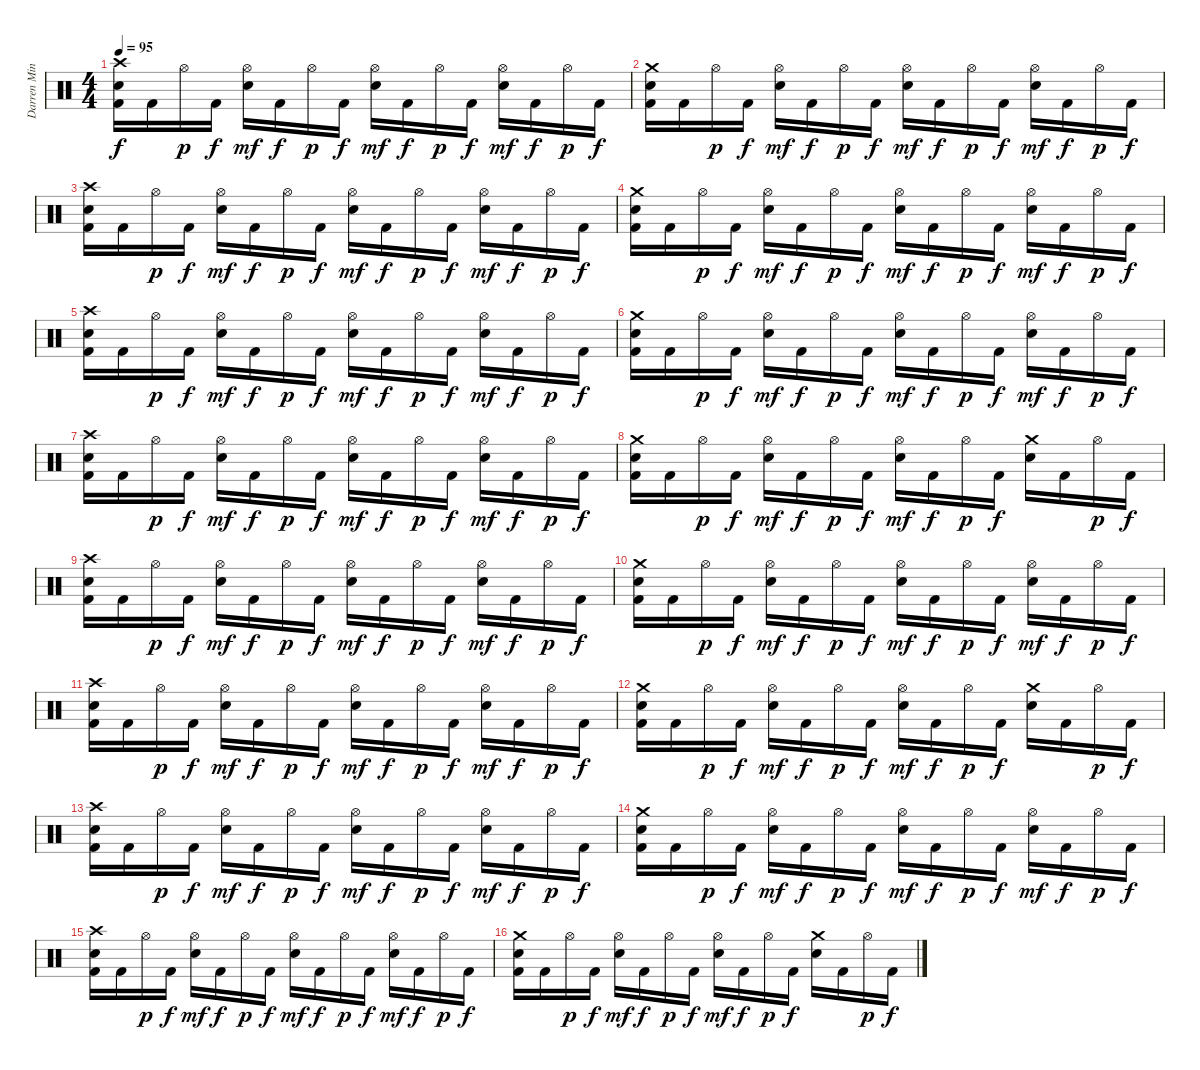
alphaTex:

\track ("Darren Minter" "Darren Min") {instrument percussion}
\staff {score}
\articulation defaults
\ts (4 4)
\tempo 95
\clef neutral
\ks c
("Kick (hit) 2" "Crash high (hit)" "Snare (hit) 2").16{dy f} "Kick (hit) 2".16 "Hi-Hat (open)".16{dy p} "Kick (hit) 2".16{dy f} ("Hi-Hat (open)" "Snare (hit) 2").16{dy mf} "Kick (hit) 2".16{dy f} "Hi-Hat (open)".16{dy p} "Kick (hit) 2".16{dy f} ("Hi-Hat (open)" "Snare (hit) 2").16{dy mf} "Kick (hit) 2".16{dy f} "Hi-Hat (open)".16{dy p} "Kick (hit) 2".16{dy f} ("Hi-Hat (open)" "Snare (hit) 2").16{dy mf} "Kick (hit) 2".16{dy f} "Hi-Hat (open)".16{dy p} "Kick (hit) 2".16{dy f} |
("Kick (hit) 2" "Crash medium (hit)" "Snare (hit) 2").16 "Kick (hit) 2".16 "Hi-Hat (open)".16{dy p} "Kick (hit) 2".16{dy f} ("Hi-Hat (open)" "Snare (hit) 2").16{dy mf} "Kick (hit) 2".16{dy f} "Hi-Hat (open)".16{dy p} "Kick (hit) 2".16{dy f} ("Hi-Hat (open)" "Snare (hit) 2").16{dy mf} "Kick (hit) 2".16{dy f} "Hi-Hat (open)".16{dy p} "Kick (hit) 2".16{dy f} ("Hi-Hat (open)" "Snare (hit) 2").16{dy mf} "Kick (hit) 2".16{dy f} "Hi-Hat (open)".16{dy p} "Kick (hit) 2".16{dy f} |
("Kick (hit) 2" "Crash high (hit)" "Snare (hit) 2").16 "Kick (hit) 2".16 "Hi-Hat (open)".16{dy p} "Kick (hit) 2".16{dy f} ("Hi-Hat (open)" "Snare (hit) 2").16{dy mf} "Kick (hit) 2".16{dy f} "Hi-Hat (open)".16{dy p} "Kick (hit) 2".16{dy f} ("Hi-Hat (open)" "Snare (hit) 2").16{dy mf} "Kick (hit) 2".16{dy f} "Hi-Hat (open)".16{dy p} "Kick (hit) 2".16{dy f} ("Hi-Hat (open)" "Snare (hit) 2").16{dy mf} "Kick (hit) 2".16{dy f} "Hi-Hat (open)".16{dy p} "Kick (hit) 2".16{dy f} |
("Kick (hit) 2" "Crash medium (hit)" "Snare (hit) 2").16 "Kick (hit) 2".16 "Hi-Hat (open)".16{dy p} "Kick (hit) 2".16{dy f} ("Hi-Hat (open)" "Snare (hit) 2").16{dy mf} "Kick (hit) 2".16{dy f} "Hi-Hat (open)".16{dy p} "Kick (hit) 2".16{dy f} ("Hi-Hat (open)" "Snare (hit) 2").16{dy mf} "Kick (hit) 2".16{dy f} "Hi-Hat (open)".16{dy p} "Kick (hit) 2".16{dy f} ("Hi-Hat (open)" "Snare (hit) 2").16{dy mf} "Kick (hit) 2".16{dy f} "Hi-Hat (open)".16{dy p} "Kick (hit) 2".16{dy f} |
("Kick (hit) 2" "Crash high (hit)" "Snare (hit) 2").16 "Kick (hit) 2".16 "Hi-Hat (open)".16{dy p} "Kick (hit) 2".16{dy f} ("Hi-Hat (open)" "Snare (hit) 2").16{dy mf} "Kick (hit) 2".16{dy f} "Hi-Hat (open)".16{dy p} "Kick (hit) 2".16{dy f} ("Hi-Hat (open)" "Snare (hit) 2").16{dy mf} "Kick (hit) 2".16{dy f} "Hi-Hat (open)".16{dy p} "Kick (hit) 2".16{dy f} ("Hi-Hat (open)" "Snare (hit) 2").16{dy mf} "Kick (hit) 2".16{dy f} "Hi-Hat (open)".16{dy p} "Kick (hit) 2".16{dy f} |
("Kick (hit) 2" "Crash medium (hit)" "Snare (hit) 2").16 "Kick (hit) 2".16 "Hi-Hat (open)".16{dy p} "Kick (hit) 2".16{dy f} ("Hi-Hat (open)" "Snare (hit) 2").16{dy mf} "Kick (hit) 2".16{dy f} "Hi-Hat (open)".16{dy p} "Kick (hit) 2".16{dy f} ("Hi-Hat (open)" "Snare (hit) 2").16{dy mf} "Kick (hit) 2".16{dy f} "Hi-Hat (open)".16{dy p} "Kick (hit) 2".16{dy f} ("Hi-Hat (open)" "Snare (hit) 2").16{dy mf} "Kick (hit) 2".16{dy f} "Hi-Hat (open)".16{dy p} "Kick (hit) 2".16{dy f} |
("Kick (hit) 2" "Crash high (hit)" "Snare (hit) 2").16 "Kick (hit) 2".16 "Hi-Hat (open)".16{dy p} "Kick (hit) 2".16{dy f} ("Hi-Hat (open)" "Snare (hit) 2").16{dy mf} "Kick (hit) 2".16{dy f} "Hi-Hat (open)".16{dy p} "Kick (hit) 2".16{dy f} ("Hi-Hat (open)" "Snare (hit) 2").16{dy mf} "Kick (hit) 2".16{dy f} "Hi-Hat (open)".16{dy p} "Kick (hit) 2".16{dy f} ("Hi-Hat (open)" "Snare (hit) 2").16{dy mf} "Kick (hit) 2".16{dy f} "Hi-Hat (open)".16{dy p} "Kick (hit) 2".16{dy f} |
("Kick (hit) 2" "Crash medium (hit)" "Snare (hit) 2").16 "Kick (hit) 2".16 "Hi-Hat (open)".16{dy p} "Kick (hit) 2".16{dy f} ("Hi-Hat (open)" "Snare (hit) 2").16{dy mf} "Kick (hit) 2".16{dy f} "Hi-Hat (open)".16{dy p} "Kick (hit) 2".16{dy f} ("Hi-Hat (open)" "Snare (hit) 2").16{dy mf} "Kick (hit) 2".16{dy f} "Hi-Hat (open)".16{dy p} "Kick (hit) 2".16{dy f} ("Crash medium (hit)" "Snare (hit) 2").16 "Kick (hit) 2".16 "Hi-Hat (open)".16{dy p} "Kick (hit) 2".16{dy f} |
("Kick (hit) 2" "Crash high (hit)" "Snare (hit) 2").16 "Kick (hit) 2".16 "Hi-Hat (open)".16{dy p} "Kick (hit) 2".16{dy f} ("Hi-Hat (open)" "Snare (hit) 2").16{dy mf} "Kick (hit) 2".16{dy f} "Hi-Hat (open)".16{dy p} "Kick (hit) 2".16{dy f} ("Hi-Hat (open)" "Snare (hit) 2").16{dy mf} "Kick (hit) 2".16{dy f} "Hi-Hat (open)".16{dy p} "Kick (hit) 2".16{dy f} ("Hi-Hat (open)" "Snare (hit) 2").16{dy mf} "Kick (hit) 2".16{dy f} "Hi-Hat (open)".16{dy p} "Kick (hit) 2".16{dy f} |
("Kick (hit) 2" "Crash medium (hit)" "Snare (hit) 2").16 "Kick (hit) 2".16 "Hi-Hat (open)".16{dy p} "Kick (hit) 2".16{dy f} ("Hi-Hat (open)" "Snare (hit) 2").16{dy mf} "Kick (hit) 2".16{dy f} "Hi-Hat (open)".16{dy p} "Kick (hit) 2".16{dy f} ("Hi-Hat (open)" "Snare (hit) 2").16{dy mf} "Kick (hit) 2".16{dy f} "Hi-Hat (open)".16{dy p} "Kick (hit) 2".16{dy f} ("Hi-Hat (open)" "Snare (hit) 2").16{dy mf} "Kick (hit) 2".16{dy f} "Hi-Hat (open)".16{dy p} "Kick (hit) 2".16{dy f} |
("Kick (hit) 2" "Crash high (hit)" "Snare (hit) 2").16 "Kick (hit) 2".16 "Hi-Hat (open)".16{dy p} "Kick (hit) 2".16{dy f} ("Hi-Hat (open)" "Snare (hit) 2").16{dy mf} "Kick (hit) 2".16{dy f} "Hi-Hat (open)".16{dy p} "Kick (hit) 2".16{dy f} ("Hi-Hat (open)" "Snare (hit) 2").16{dy mf} "Kick (hit) 2".16{dy f} "Hi-Hat (open)".16{dy p} "Kick (hit) 2".16{dy f} ("Hi-Hat (open)" "Snare (hit) 2").16{dy mf} "Kick (hit) 2".16{dy f} "Hi-Hat (open)".16{dy p} "Kick (hit) 2".16{dy f} |
("Kick (hit) 2" "Crash medium (hit)" "Snare (hit) 2").16 "Kick (hit) 2".16 "Hi-Hat (open)".16{dy p} "Kick (hit) 2".16{dy f} ("Hi-Hat (open)" "Snare (hit) 2").16{dy mf} "Kick (hit) 2".16{dy f} "Hi-Hat (open)".16{dy p} "Kick (hit) 2".16{dy f} ("Hi-Hat (open)" "Snare (hit) 2").16{dy mf} "Kick (hit) 2".16{dy f} "Hi-Hat (open)".16{dy p} "Kick (hit) 2".16{dy f} ("Crash medium (hit)" "Snare (hit) 2").16 "Kick (hit) 2".16 "Hi-Hat (open)".16{dy p} "Kick (hit) 2".16{dy f} |
("Kick (hit) 2" "Crash high (hit)" "Snare (hit) 2").16 "Kick (hit) 2".16 "Hi-Hat (open)".16{dy p} "Kick (hit) 2".16{dy f} ("Hi-Hat (open)" "Snare (hit) 2").16{dy mf} "Kick (hit) 2".16{dy f} "Hi-Hat (open)".16{dy p} "Kick (hit) 2".16{dy f} ("Hi-Hat (open)" "Snare (hit) 2").16{dy mf} "Kick (hit) 2".16{dy f} "Hi-Hat (open)".16{dy p} "Kick (hit) 2".16{dy f} ("Hi-Hat (open)" "Snare (hit) 2").16{dy mf} "Kick (hit) 2".16{dy f} "Hi-Hat (open)".16{dy p} "Kick (hit) 2".16{dy f} |
("Kick (hit) 2" "Crash medium (hit)" "Snare (hit) 2").16 "Kick (hit) 2".16 "Hi-Hat (open)".16{dy p} "Kick (hit) 2".16{dy f} ("Hi-Hat (open)" "Snare (hit) 2").16{dy mf} "Kick (hit) 2".16{dy f} "Hi-Hat (open)".16{dy p} "Kick (hit) 2".16{dy f} ("Hi-Hat (open)" "Snare (hit) 2").16{dy mf} "Kick (hit) 2".16{dy f} "Hi-Hat (open)".16{dy p} "Kick (hit) 2".16{dy f} ("Hi-Hat (open)" "Snare (hit) 2").16{dy mf} "Kick (hit) 2".16{dy f} "Hi-Hat (open)".16{dy p} "Kick (hit) 2".16{dy f} |
("Kick (hit) 2" "Crash high (hit)" "Snare (hit) 2").16 "Kick (hit) 2".16 "Hi-Hat (open)".16{dy p} "Kick (hit) 2".16{dy f} ("Hi-Hat (open)" "Snare (hit) 2").16{dy mf} "Kick (hit) 2".16{dy f} "Hi-Hat (open)".16{dy p} "Kick (hit) 2".16{dy f} ("Hi-Hat (open)" "Snare (hit) 2").16{dy mf} "Kick (hit) 2".16{dy f} "Hi-Hat (open)".16{dy p} "Kick (hit) 2".16{dy f} ("Hi-Hat (open)" "Snare (hit) 2").16{dy mf} "Kick (hit) 2".16{dy f} "Hi-Hat (open)".16{dy p} "Kick (hit) 2".16{dy f} |
("Kick (hit) 2" "Crash medium (hit)" "Snare (hit) 2").16 "Kick (hit) 2".16 "Hi-Hat (open)".16{dy p} "Kick (hit) 2".16{dy f} ("Hi-Hat (open)" "Snare (hit) 2").16{dy mf} "Kick (hit) 2".16{dy f} "Hi-Hat (open)".16{dy p} "Kick (hit) 2".16{dy f} ("Hi-Hat (open)" "Snare (hit) 2").16{dy mf} "Kick (hit) 2".16{dy f} "Hi-Hat (open)".16{dy p} "Kick (hit) 2".16{dy f} ("Crash medium (hit)" "Snare (hit) 2").16 "Kick (hit) 2".16 "Hi-Hat (open)".16{dy p} "Kick (hit) 2".16{dy f}
